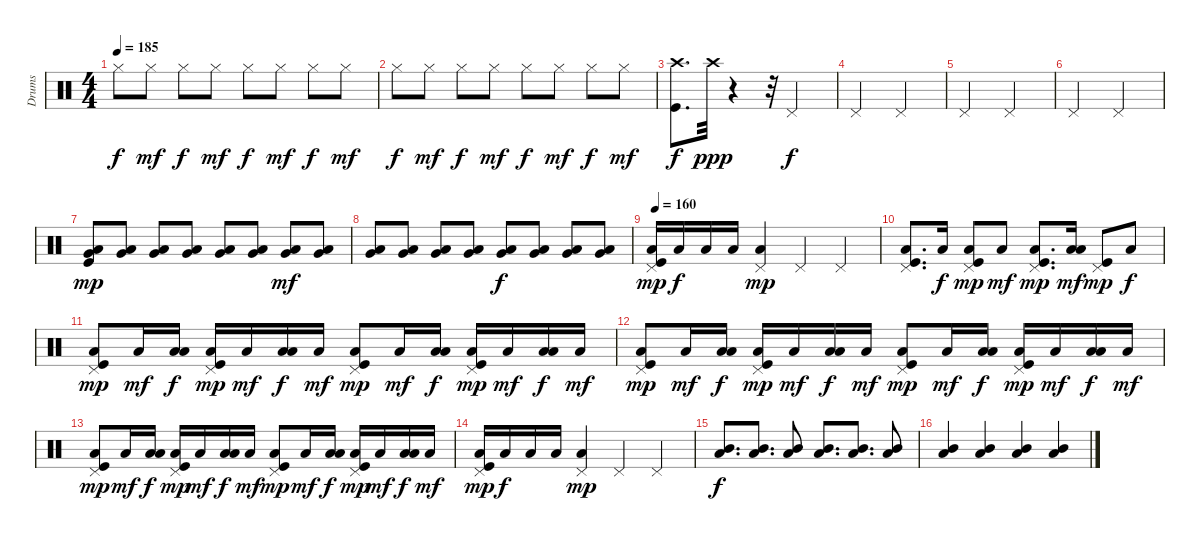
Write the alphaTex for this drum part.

\track ("Drums" "Drums") {instrument percussion}
\staff {score}
\articulation defaults
\ts (4 4)
\tempo 185
\clef neutral
\ks c "Hi-Hat (closed)".8{dy f} "Hi-Hat (closed)".8{dy mf} "Hi-Hat (closed)".8{dy f} "Hi-Hat (closed)".8{dy mf} "Hi-Hat (closed)".8{dy f} "Hi-Hat (closed)".8{dy mf} "Hi-Hat (closed)".8{dy f} "Hi-Hat (closed)".8{dy mf}
|
"Hi-Hat (closed)".8{dy f} "Hi-Hat (closed)".8{dy mf} "Hi-Hat (closed)".8{dy f} "Hi-Hat (closed)".8{dy mf} "Hi-Hat (closed)".8{dy f} "Hi-Hat (closed)".8{dy mf} "Hi-Hat (closed)".8{dy f} "Hi-Hat (closed)".8{dy mf} |
("Kick (hit)" "Crash high (hit)").8{d dy f} "Crash high (hit)".32{dy ppp} r.4 r.32 "Pedal Hi-Hat (hit)".2{dy f} |
"Pedal Hi-Hat (hit)".2 "Pedal Hi-Hat (hit)".2 |
"Pedal Hi-Hat (hit)".2 "Pedal Hi-Hat (hit)".2 |
"Pedal Hi-Hat (hit)".2 "Pedal Hi-Hat (hit)".2 |
("Kick (hit)" "Very Low Tom (hit)" "Low Tom (hit)").8{dy mp} ("Very Low Tom (hit)" "Low Tom (hit)").8 ("Very Low Tom (hit)" "Low Tom (hit)").8 ("Very Low Tom (hit)" "Low Tom (hit)").8 ("Very Low Tom (hit)" "Low Tom (hit)").8 ("Very Low Tom (hit)" "Low Tom (hit)").8 ("Very Low Tom (hit)" "Low Tom (hit)").8{dy mf} ("Very Low Tom (hit)" "Low Tom (hit)").8 |
("Very Low Tom (hit)" "Low Tom (hit)").8 ("Very Low Tom (hit)" "Low Tom (hit)").8 ("Very Low Tom (hit)" "Low Tom (hit)").8 ("Very Low Tom (hit)" "Low Tom (hit)").8 ("Very Low Tom (hit)" "Low Tom (hit)").8{dy f} ("Very Low Tom (hit)" "Low Tom (hit)").8 ("Very Low Tom (hit)" "Low Tom (hit)").8 ("Very Low Tom (hit)" "Low Tom (hit)").8 |
\tempo 160
("Kick (hit)" "Low Floor Tom (hit)" "Pedal Hi-Hat (hit)").16{dy mp volume 13} "Low Floor Tom (hit)".16{dy f} "Low Floor Tom (hit)".16 "Low Floor Tom (hit)".16 ("Low Floor Tom (hit)" "Pedal Hi-Hat (hit)").4{dy mp} "Pedal Hi-Hat (hit)".4 "Pedal Hi-Hat (hit)".4 |
("Kick (hit)" "Low Floor Tom (hit)" "Pedal Hi-Hat (hit)").8{d} "Low Floor Tom (hit)".16{dy f} ("Kick (hit)" "Low Floor Tom (hit)" "Pedal Hi-Hat (hit)").8{dy mp} "Low Floor Tom (hit)".8{dy mf} ("Kick (hit)" "Low Floor Tom (hit)" "Pedal Hi-Hat (hit)").8{d dy mp} ("Low Floor Tom (hit)" "Low Floor Tom (hit)").16{dy mf} ("Kick (hit)" "Pedal Hi-Hat (hit)").8{dy mp} "Low Floor Tom (hit)".8{dy f} |
("Kick (hit)" "Low Floor Tom (hit)" "Pedal Hi-Hat (hit)").8{dy mp} "Low Floor Tom (hit)".16{dy mf} ("Low Floor Tom (hit)" "Low Floor Tom (hit)").16{dy f} ("Kick (hit)" "Low Floor Tom (hit)" "Pedal Hi-Hat (hit)").16{dy mp} "Low Floor Tom (hit)".16{dy mf} ("Low Floor Tom (hit)" "Low Floor Tom (hit)").16{dy f} "Low Floor Tom (hit)".16{dy mf} ("Kick (hit)" "Low Floor Tom (hit)" "Pedal Hi-Hat (hit)").8{dy mp} "Low Floor Tom (hit)".16{dy mf} ("Low Floor Tom (hit)" "Low Floor Tom (hit)").16{dy f} ("Kick (hit)" "Low Floor Tom (hit)" "Pedal Hi-Hat (hit)").16{dy mp} "Low Floor Tom (hit)".16{dy mf} ("Low Floor Tom (hit)" "Low Floor Tom (hit)").16{dy f} "Low Floor Tom (hit)".16{dy mf} |
("Kick (hit)" "Low Floor Tom (hit)" "Pedal Hi-Hat (hit)").8{dy mp} "Low Floor Tom (hit)".16{dy mf} ("Low Floor Tom (hit)" "Low Floor Tom (hit)").16{dy f} ("Kick (hit)" "Low Floor Tom (hit)" "Pedal Hi-Hat (hit)").16{dy mp} "Low Floor Tom (hit)".16{dy mf} ("Low Floor Tom (hit)" "Low Floor Tom (hit)").16{dy f} "Low Floor Tom (hit)".16{dy mf} ("Kick (hit)" "Low Floor Tom (hit)" "Pedal Hi-Hat (hit)").8{dy mp} "Low Floor Tom (hit)".16{dy mf} ("Low Floor Tom (hit)" "Low Floor Tom (hit)").16{dy f} ("Kick (hit)" "Low Floor Tom (hit)" "Pedal Hi-Hat (hit)").16{dy mp} "Low Floor Tom (hit)".16{dy mf} ("Low Floor Tom (hit)" "Low Floor Tom (hit)").16{dy f} "Low Floor Tom (hit)".16{dy mf} |
("Kick (hit)" "Low Floor Tom (hit)" "Pedal Hi-Hat (hit)").8{dy mp} "Low Floor Tom (hit)".16{dy mf} ("Low Floor Tom (hit)" "Low Floor Tom (hit)").16{dy f} ("Kick (hit)" "Low Floor Tom (hit)" "Pedal Hi-Hat (hit)").16{dy mp} "Low Floor Tom (hit)".16{dy mf} ("Low Floor Tom (hit)" "Low Floor Tom (hit)").16{dy f} "Low Floor Tom (hit)".16{dy mf} ("Kick (hit)" "Low Floor Tom (hit)" "Pedal Hi-Hat (hit)").8{dy mp} "Low Floor Tom (hit)".16{dy mf} ("Low Floor Tom (hit)" "Low Floor Tom (hit)").16{dy f} ("Kick (hit)" "Low Floor Tom (hit)" "Pedal Hi-Hat (hit)").16{dy mp} "Low Floor Tom (hit)".16{dy mf} ("Low Floor Tom (hit)" "Low Floor Tom (hit)").16{dy f} "Low Floor Tom (hit)".16{dy mf} |
("Kick (hit)" "Low Floor Tom (hit)" "Pedal Hi-Hat (hit)").16{dy mp} "Low Floor Tom (hit)".16{dy f} "Low Floor Tom (hit)".16 "Low Floor Tom (hit)".16 ("Low Floor Tom (hit)" "Pedal Hi-Hat (hit)").4{dy mp} "Pedal Hi-Hat (hit)".4 "Pedal Hi-Hat (hit)".4 |
("Low Tom (hit)" "Mid Tom (hit)").8{d dy f} ("Low Tom (hit)" "Mid Tom (hit)").8{d} ("Low Tom (hit)" "Mid Tom (hit)").8 ("Low Tom (hit)" "Mid Tom (hit)").8{d} ("Low Tom (hit)" "Mid Tom (hit)").8{d} ("Low Tom (hit)" "Mid Tom (hit)").8 |
("Low Tom (hit)" "Mid Tom (hit)").4 ("Low Tom (hit)" "Mid Tom (hit)").4 ("Low Tom (hit)" "Mid Tom (hit)").4 ("Low Tom (hit)" "Mid Tom (hit)").4
